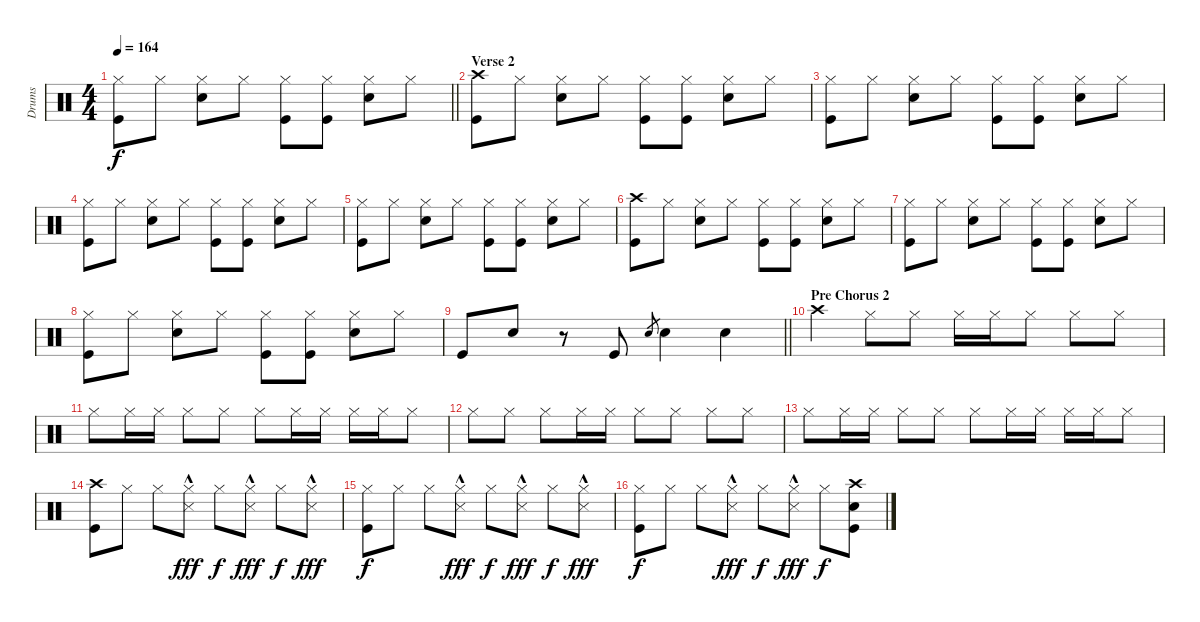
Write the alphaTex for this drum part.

\track ("Drums" "Drums") {instrument percussion}
\staff {score}
\articulation defaults
\ts (4 4)
\tempo 164
\clef neutral
\barLineRight lightlight
\ks c
("Hi-Hat (closed)" "Kick (hit)").8{dy f} "Hi-Hat (closed)".8 ("Hi-Hat (closed)" "Snare (hit) 2").8 "Hi-Hat (closed)".8 ("Hi-Hat (closed)" "Kick (hit)").8 ("Hi-Hat (closed)" "Kick (hit)").8 ("Hi-Hat (closed)" "Snare (hit) 2").8 "Hi-Hat (closed)".8 |
\section ("" "Verse 2")
("Crash high (hit)" "Kick (hit)").8 "Hi-Hat (closed)".8 ("Hi-Hat (closed)" "Snare (hit) 2").8 "Hi-Hat (closed)".8 ("Hi-Hat (closed)" "Kick (hit)").8 ("Hi-Hat (closed)" "Kick (hit)").8 ("Hi-Hat (closed)" "Snare (hit) 2").8 "Hi-Hat (closed)".8 |
("Hi-Hat (closed)" "Kick (hit)").8 "Hi-Hat (closed)".8 ("Hi-Hat (closed)" "Snare (hit) 2").8 "Hi-Hat (closed)".8 ("Hi-Hat (closed)" "Kick (hit)").8 ("Hi-Hat (closed)" "Kick (hit)").8 ("Hi-Hat (closed)" "Snare (hit) 2").8 "Hi-Hat (closed)".8 |
("Hi-Hat (closed)" "Kick (hit)").8 "Hi-Hat (closed)".8 ("Hi-Hat (closed)" "Snare (hit) 2").8 "Hi-Hat (closed)".8 ("Hi-Hat (closed)" "Kick (hit)").8 ("Hi-Hat (closed)" "Kick (hit)").8 ("Hi-Hat (closed)" "Snare (hit) 2").8 "Hi-Hat (closed)".8 |
("Hi-Hat (closed)" "Kick (hit)").8 "Hi-Hat (closed)".8 ("Hi-Hat (closed)" "Snare (hit) 2").8 "Hi-Hat (closed)".8 ("Hi-Hat (closed)" "Kick (hit)").8 ("Hi-Hat (closed)" "Kick (hit)").8 ("Hi-Hat (closed)" "Snare (hit) 2").8 "Hi-Hat (closed)".8 |
("Crash high (hit)" "Kick (hit)").8 "Hi-Hat (closed)".8 ("Hi-Hat (closed)" "Snare (hit) 2").8 "Hi-Hat (closed)".8 ("Hi-Hat (closed)" "Kick (hit)").8 ("Hi-Hat (closed)" "Kick (hit)").8 ("Hi-Hat (closed)" "Snare (hit) 2").8 "Hi-Hat (closed)".8 |
("Hi-Hat (closed)" "Kick (hit)").8 "Hi-Hat (closed)".8 ("Hi-Hat (closed)" "Snare (hit) 2").8 "Hi-Hat (closed)".8 ("Hi-Hat (closed)" "Kick (hit)").8 ("Hi-Hat (closed)" "Kick (hit)").8 ("Hi-Hat (closed)" "Snare (hit) 2").8 "Hi-Hat (closed)".8 |
("Hi-Hat (closed)" "Kick (hit)").8 "Hi-Hat (closed)".8 ("Hi-Hat (closed)" "Snare (hit) 2").8 "Hi-Hat (closed)".8 ("Hi-Hat (closed)" "Kick (hit)").8 ("Hi-Hat (closed)" "Kick (hit)").8 ("Hi-Hat (closed)" "Snare (hit) 2").8 "Hi-Hat (closed)".8 |
\barLineRight lightlight "Kick (hit)".8 "Snare (hit) 2".8
r.8 "Kick (hit)".8 "Snare (hit) 2".8{gr} "Snare (hit) 2".4 "Snare (hit) 2".4 |
\section ("" "Pre Chorus 2")
"Crash high (hit)".4{volume 6} "Hi-Hat (closed)".8 "Hi-Hat (closed)".8 "Hi-Hat (closed)".16 "Hi-Hat (closed)".16 "Hi-Hat (closed)".8 "Hi-Hat (closed)".8 "Hi-Hat (closed)".8 |
"Hi-Hat (closed)".8 "Hi-Hat (closed)".16 "Hi-Hat (closed)".16 "Hi-Hat (closed)".8 "Hi-Hat (closed)".8 "Hi-Hat (closed)".8 "Hi-Hat (closed)".16 "Hi-Hat (closed)".16 "Hi-Hat (closed)".16 "Hi-Hat (closed)".16 "Hi-Hat (closed)".8 |
"Hi-Hat (closed)".8 "Hi-Hat (closed)".8 "Hi-Hat (closed)".8 "Hi-Hat (closed)".16 "Hi-Hat (closed)".16 "Hi-Hat (closed)".8 "Hi-Hat (closed)".8 "Hi-Hat (closed)".8 "Hi-Hat (closed)".8 |
"Hi-Hat (closed)".8 "Hi-Hat (closed)".16 "Hi-Hat (closed)".16 "Hi-Hat (closed)".8 "Hi-Hat (closed)".8 "Hi-Hat (closed)".8 "Hi-Hat (closed)".16 "Hi-Hat (closed)".16 "Hi-Hat (closed)".16 "Hi-Hat (closed)".16 "Hi-Hat (closed)".8 |
("Crash high (hit)" "Kick (hit)").8{volume 15} "Hi-Hat (closed)".8 "Hi-Hat (closed)".8 ("Hi-Hat (closed)" "Snare (side stick) 3"{hac}).8{dy fff} "Hi-Hat (closed)".8{dy f} ("Hi-Hat (closed)" "Snare (side stick) 3"{hac}).8{dy fff} "Hi-Hat (closed)".8{dy f} ("Hi-Hat (closed)" "Snare (side stick) 3"{hac}).8{dy fff} |
("Hi-Hat (closed)" "Kick (hit)").8{dy f} "Hi-Hat (closed)".8 "Hi-Hat (closed)".8 ("Hi-Hat (closed)" "Snare (side stick) 3"{hac}).8{dy fff} "Hi-Hat (closed)".8{dy f} ("Hi-Hat (closed)" "Snare (side stick) 3"{hac}).8{dy fff} "Hi-Hat (closed)".8{dy f} ("Hi-Hat (closed)" "Snare (side stick) 3"{hac}).8{dy fff} |
("Hi-Hat (closed)" "Kick (hit)").8{dy f} "Hi-Hat (closed)".8 "Hi-Hat (closed)".8 ("Hi-Hat (closed)" "Snare (side stick) 3"{hac}).8{dy fff} "Hi-Hat (closed)".8{dy f} ("Hi-Hat (closed)" "Snare (side stick) 3"{hac}).8{dy fff} "Hi-Hat (closed)".8{dy f} ("Kick (hit)" "Snare (hit) 2" "Crash high (hit)").8
